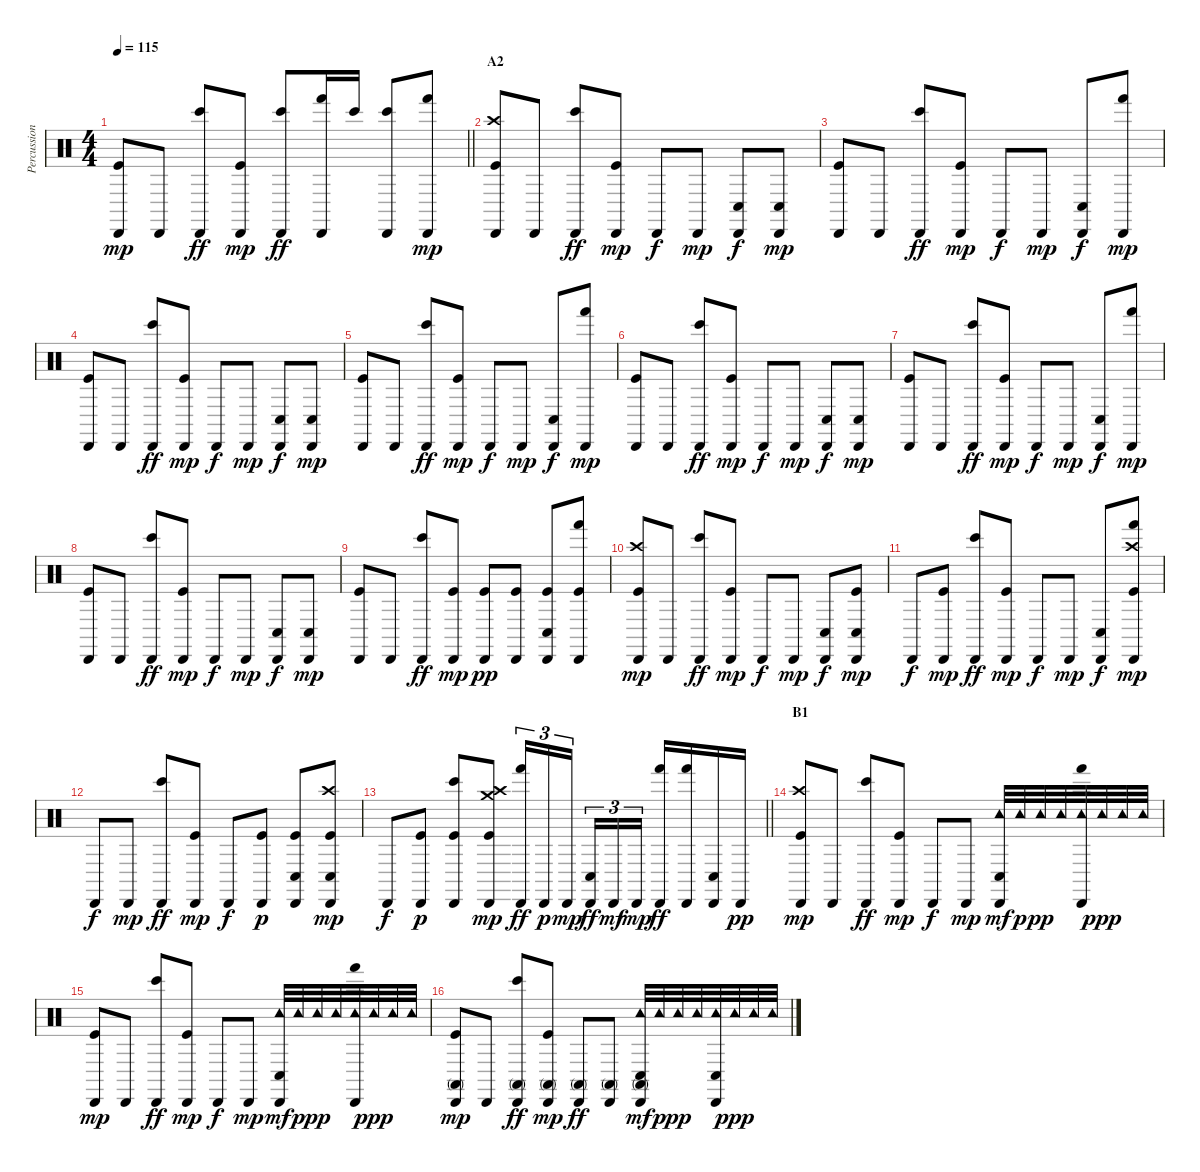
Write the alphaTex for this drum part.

\track ("Percussions" "Percussion") {instrument percussion}
\staff {score}
\articulation defaults
\ts (4 4)
\tempo 115
\clef neutral
\barLineRight lightlight
\ks c
("Cabasa (hit)" "Kick (hit)").8{dy mp} "Cabasa (hit)".8 ("Cabasa (hit)" "Bongo High (hit)").8{dy ff} ("Cabasa (hit)" "Kick (hit)").8{dy mp} ("Cabasa (hit)" "Bongo High (hit)").8{dy ff} ("Cabasa (hit)" "Hand (hit)").16 "Bongo High (hit)".16 ("Cabasa (hit)" "Bongo High (hit)").8 ("Cabasa (hit)" "Hand (hit)").8{dy mp} |
\section ("" "A2")
("Cabasa (hit)" "Crash high (hit)" "Kick (hit)").8 "Cabasa (hit)".8 ("Cabasa (hit)" "Bongo High (hit)").8{dy ff} ("Cabasa (hit)" "Kick (hit)").8{dy mp} "Cabasa (hit)".8{dy f} "Cabasa (hit)".8{dy mp} ("Cabasa (hit)" "Conga low (hit)").8{dy f} ("Cabasa (hit)" "Conga low (hit)").8{dy mp} |
("Cabasa (hit)" "Kick (hit)").8 "Cabasa (hit)".8 ("Cabasa (hit)" "Bongo High (hit)").8{dy ff} ("Cabasa (hit)" "Kick (hit)").8{dy mp} "Cabasa (hit)".8{dy f} "Cabasa (hit)".8{dy mp} ("Cabasa (hit)" "Conga low (hit)").8{dy f} ("Cabasa (hit)" "Hand (hit)").8{dy mp} |
("Cabasa (hit)" "Kick (hit)").8 "Cabasa (hit)".8 ("Cabasa (hit)" "Bongo High (hit)").8{dy ff} ("Cabasa (hit)" "Kick (hit)").8{dy mp} "Cabasa (hit)".8{dy f} "Cabasa (hit)".8{dy mp} ("Cabasa (hit)" "Conga low (hit)").8{dy f} ("Cabasa (hit)" "Conga low (hit)").8{dy mp} |
("Cabasa (hit)" "Kick (hit)").8 "Cabasa (hit)".8 ("Cabasa (hit)" "Bongo High (hit)").8{dy ff} ("Cabasa (hit)" "Kick (hit)").8{dy mp} "Cabasa (hit)".8{dy f} "Cabasa (hit)".8{dy mp} ("Cabasa (hit)" "Conga low (hit)").8{dy f} ("Cabasa (hit)" "Hand (hit)").8{dy mp} |
("Cabasa (hit)" "Kick (hit)").8 "Cabasa (hit)".8 ("Cabasa (hit)" "Bongo High (hit)").8{dy ff} ("Cabasa (hit)" "Kick (hit)").8{dy mp} "Cabasa (hit)".8{dy f} "Cabasa (hit)".8{dy mp} ("Cabasa (hit)" "Conga low (hit)").8{dy f} ("Cabasa (hit)" "Conga low (hit)").8{dy mp} |
("Cabasa (hit)" "Kick (hit)").8 "Cabasa (hit)".8 ("Cabasa (hit)" "Bongo High (hit)").8{dy ff} ("Cabasa (hit)" "Kick (hit)").8{dy mp} "Cabasa (hit)".8{dy f} "Cabasa (hit)".8{dy mp} ("Cabasa (hit)" "Conga low (hit)").8{dy f} ("Cabasa (hit)" "Hand (hit)").8{dy mp} |
("Cabasa (hit)" "Kick (hit)").8 "Cabasa (hit)".8 ("Cabasa (hit)" "Bongo High (hit)").8{dy ff} ("Cabasa (hit)" "Kick (hit)").8{dy mp} "Cabasa (hit)".8{dy f} "Cabasa (hit)".8{dy mp} ("Cabasa (hit)" "Conga low (hit)").8{dy f} ("Cabasa (hit)" "Conga low (hit)").8{dy mp} |
("Cabasa (hit)" "Kick (hit)").8 "Cabasa (hit)".8 ("Cabasa (hit)" "Bongo High (hit)").8{dy ff} ("Cabasa (hit)" "Kick (hit)").8{dy mp} ("Cabasa (hit)" "Kick (hit)").8{dy pp} ("Cabasa (hit)" "Kick (hit)").8 ("Cabasa (hit)" "Conga low (hit)" "Kick (hit)").8 ("Cabasa (hit)" "Hand (hit)" "Kick (hit)").8 |
("Cabasa (hit)" "Crash high (hit)" "Kick (hit)").8{dy mp} "Cabasa (hit)".8 ("Cabasa (hit)" "Bongo High (hit)").8{dy ff} ("Cabasa (hit)" "Kick (hit)").8{dy mp} "Cabasa (hit)".8{dy f} "Cabasa (hit)".8{dy mp} ("Cabasa (hit)" "Conga low (hit)").8{dy f} ("Cabasa (hit)" "Conga low (hit)" "Kick (hit)").8{dy mp} |
"Cabasa (hit)".8{dy f} ("Cabasa (hit)" "Kick (hit)").8{dy mp} ("Cabasa (hit)" "Bongo High (hit)").8{dy ff} ("Cabasa (hit)" "Kick (hit)").8{dy mp} "Cabasa (hit)".8{dy f} "Cabasa (hit)".8{dy mp} ("Cabasa (hit)" "Conga low (hit)").8{dy f} ("Cabasa (hit)" "Crash high (hit)" "Hand (hit)" "Kick (hit)").8{dy mp} |
"Cabasa (hit)".8{dy f} "Cabasa (hit)".8{dy mp} ("Cabasa (hit)" "Bongo High (hit)").8{dy ff} ("Cabasa (hit)" "Kick (hit)").8{dy mp} "Cabasa (hit)".8{dy f} ("Cabasa (hit)" "Kick (hit)").8{dy p} ("Cabasa (hit)" "Conga low (hit)" "Kick (hit)").8 ("Cabasa (hit)" "Crash high (hit)" "Conga low (hit)" "Kick (hit)").8{dy mp} |
\barLineRight lightlight "Cabasa (hit)".8{dy f}
("Cabasa (hit)" "Kick (hit)").8{dy p} ("Cabasa (hit)" "Bongo High (hit)" "Kick (hit)").8 ("Cabasa (hit)" "Crash medium (hit)" "Crash high (hit)" "Kick (hit)").8{dy mp} ("Cabasa (hit)" "Hand (hit)").16{tu (3 2) dy ff} "Cabasa (hit)".16{tu (3 2) dy p} "Cabasa (hit)".16{tu (3 2) dy mp beam splitsecondary} ("Cabasa (hit)" "Conga low (hit)").16{tu (3 2) dy ff} "Cabasa (hit)".16{tu (3 2) dy mf} "Cabasa (hit)".16{tu (3 2) dy mp} ("Cabasa (hit)" "Hand (hit)").16{dy ff} ("Cabasa (hit)" "Hand (hit)").16 ("Cabasa (hit)" "Conga low (hit)").16 "Cabasa (hit)".16{dy pp} |
\section ("" "B1")
("Cabasa (hit)" "Crash high (hit)" "Kick (hit)").8{dy mp} "Cabasa (hit)".8 ("Cabasa (hit)" "Bongo High (hit)").8{dy ff} ("Cabasa (hit)" "Kick (hit)").8{dy mp} "Cabasa (hit)".8{dy f} "Cabasa (hit)".8{dy mp} ("Cabasa (hit)" "Conga low (hit)" "Tambourine (hit)").32{dy mf} "Tambourine (hit)".32{dy p} "Tambourine (hit)".32{dy pp} "Tambourine (hit)".32 ("Cabasa (hit)" "Hand (hit)" "Tambourine (hit)").32 "Tambourine (hit)".32{dy ppp} "Tambourine (hit)".32 "Tambourine (hit)".32 |
("Cabasa (hit)" "Kick (hit)").8{dy mp} "Cabasa (hit)".8 ("Cabasa (hit)" "Bongo High (hit)").8{dy ff} ("Cabasa (hit)" "Kick (hit)").8{dy mp} "Cabasa (hit)".8{dy f} "Cabasa (hit)".8{dy mp} ("Cabasa (hit)" "Conga low (hit)" "Tambourine (hit)").32{dy mf} "Tambourine (hit)".32{dy p} "Tambourine (hit)".32{dy pp} "Tambourine (hit)".32 ("Cabasa (hit)" "Hand (hit)" "Tambourine (hit)").32 "Tambourine (hit)".32{dy ppp} "Tambourine (hit)".32 "Tambourine (hit)".32 |
("Cabasa (hit)" "Conga high (mute)" "Kick (hit)").8{dy mp} "Cabasa (hit)".8 ("Cabasa (hit)" "Conga high (mute)" "Bongo High (hit)").8{dy ff} ("Cabasa (hit)" "Conga high (mute)" "Kick (hit)").8{dy mp} ("Cabasa (hit)" "Conga high (mute)").8{dy ff} ("Cabasa (hit)" "Conga high (mute)").8 ("Cabasa (hit)" "Conga high (mute)" "Conga low (hit)" "Tambourine (hit)").32{dy mf} "Tambourine (hit)".32{dy p} "Tambourine (hit)".32{dy pp} "Tambourine (hit)".32 ("Cabasa (hit)" "Conga low (hit)" "Tambourine (hit)").32 "Tambourine (hit)".32{dy ppp} "Tambourine (hit)".32 "Tambourine (hit)".32
